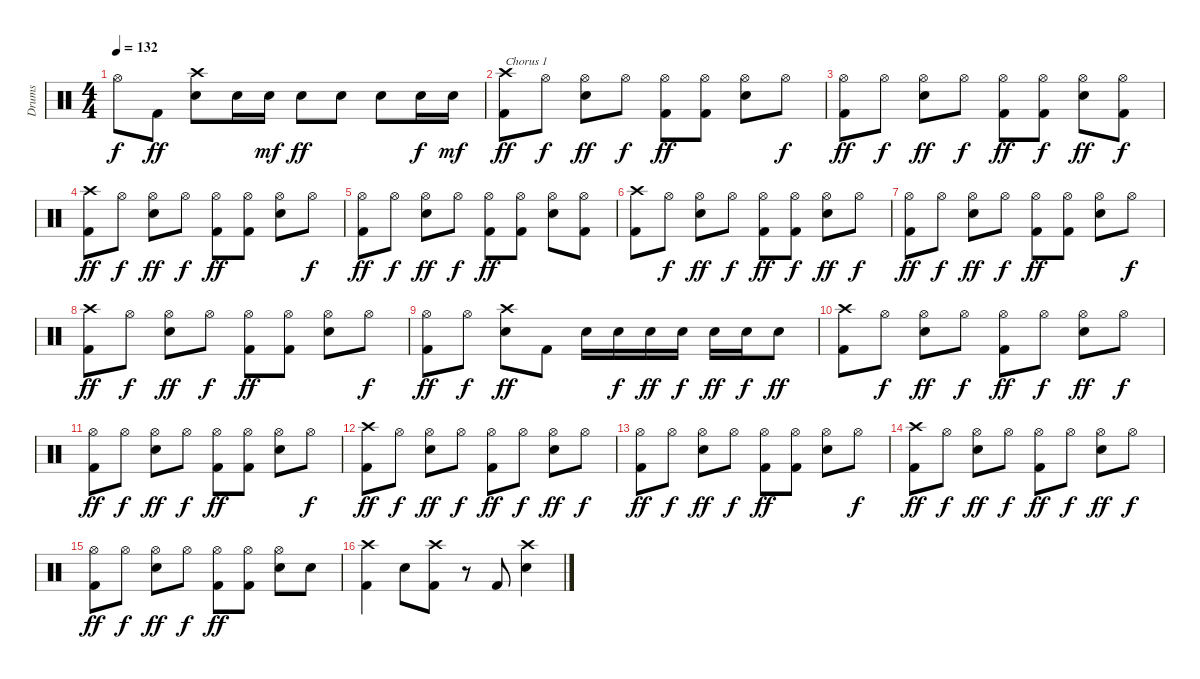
\track ("Drums" "Drums") {instrument percussion}
\staff {score}
\articulation defaults
\ts (4 4)
\tempo 132
\clef neutral
\ks c "Hi-Hat (open)".8{dy f} "Kick (hit) 2".8{dy ff}
("Crash high (hit)" "Snare (hit) 2").8 "Snare (hit) 2".16 "Snare (hit) 2".16{dy mf} "Snare (hit) 2".8{dy ff} "Snare (hit) 2".8 "Snare (hit) 2".8 "Snare (hit) 2".16{dy f} "Snare (hit) 2".16{dy mf} |
("Crash high (hit)" "Kick (hit) 2").8{txt "Chorus 1" dy ff} "Hi-Hat (open)".8{dy f} ("Hi-Hat (open)" "Snare (hit) 2").8{dy ff} "Hi-Hat (open)".8{dy f} ("Hi-Hat (open)" "Kick (hit) 2").8{dy ff} ("Hi-Hat (open)" "Kick (hit) 2").8 ("Hi-Hat (open)" "Snare (hit) 2").8 "Hi-Hat (open)".8{dy f} |
("Hi-Hat (open)" "Kick (hit) 2").8{dy ff} "Hi-Hat (open)".8{dy f} ("Hi-Hat (open)" "Snare (hit) 2").8{dy ff} "Hi-Hat (open)".8{dy f} ("Hi-Hat (open)" "Kick (hit) 2").8{dy ff} ("Hi-Hat (open)" "Kick (hit) 2").8{dy f} ("Hi-Hat (open)" "Snare (hit) 2").8{dy ff} ("Hi-Hat (open)" "Kick (hit) 2").8{dy f} |
("Crash high (hit)" "Kick (hit) 2").8{dy ff} "Hi-Hat (open)".8{dy f} ("Hi-Hat (open)" "Snare (hit) 2").8{dy ff} "Hi-Hat (open)".8{dy f} ("Hi-Hat (open)" "Kick (hit) 2").8{dy ff} ("Hi-Hat (open)" "Kick (hit) 2").8 ("Hi-Hat (open)" "Snare (hit) 2").8 "Hi-Hat (open)".8{dy f} |
("Hi-Hat (open)" "Kick (hit) 2").8{dy ff} "Hi-Hat (open)".8{dy f} ("Hi-Hat (open)" "Snare (hit) 2").8{dy ff} "Hi-Hat (open)".8{dy f} ("Hi-Hat (open)" "Kick (hit) 2").8{dy ff} ("Hi-Hat (open)" "Kick (hit) 2").8 ("Hi-Hat (open)" "Snare (hit) 2").8 ("Hi-Hat (open)" "Kick (hit) 2").8 |
("Crash high (hit)" "Kick (hit) 2").8 "Hi-Hat (open)".8{dy f} ("Hi-Hat (open)" "Snare (hit) 2").8{dy ff} "Hi-Hat (open)".8{dy f} ("Hi-Hat (open)" "Kick (hit) 2").8{dy ff} ("Hi-Hat (open)" "Kick (hit) 2").8{dy f} ("Hi-Hat (open)" "Snare (hit) 2").8{dy ff} "Hi-Hat (open)".8{dy f} |
("Hi-Hat (open)" "Kick (hit) 2").8{dy ff} "Hi-Hat (open)".8{dy f} ("Hi-Hat (open)" "Snare (hit) 2").8{dy ff} "Hi-Hat (open)".8{dy f} ("Hi-Hat (open)" "Kick (hit) 2").8{dy ff} ("Hi-Hat (open)" "Kick (hit) 2").8 ("Hi-Hat (open)" "Snare (hit) 2").8 "Hi-Hat (open)".8{dy f} |
("Crash high (hit)" "Kick (hit) 2").8{dy ff} "Hi-Hat (open)".8{dy f} ("Hi-Hat (open)" "Snare (hit) 2").8{dy ff} "Hi-Hat (open)".8{dy f} ("Hi-Hat (open)" "Kick (hit) 2").8{dy ff} ("Hi-Hat (open)" "Kick (hit) 2").8 ("Hi-Hat (open)" "Snare (hit) 2").8 "Hi-Hat (open)".8{dy f} |
("Hi-Hat (open)" "Kick (hit) 2").8{dy ff} "Hi-Hat (open)".8{dy f} ("Crash high (hit)" "Snare (hit) 2").8{dy ff} "Kick (hit) 2".8 "Snare (hit) 2".16 "Snare (hit) 2".16{dy f} "Snare (hit) 2".16{dy ff} "Snare (hit) 2".16{dy f} "Snare (hit) 2".16{dy ff} "Snare (hit) 2".16{dy f} "Snare (hit) 2".8{dy ff} |
("Crash high (hit)" "Kick (hit) 2").8 "Hi-Hat (open)".8{dy f} ("Hi-Hat (open)" "Snare (hit) 2").8{dy ff} "Hi-Hat (open)".8{dy f} ("Hi-Hat (open)" "Kick (hit) 2").8{dy ff} "Hi-Hat (open)".8{dy f} ("Hi-Hat (open)" "Snare (hit) 2").8{dy ff} "Hi-Hat (open)".8{dy f} |
("Hi-Hat (open)" "Kick (hit) 2").8{dy ff} "Hi-Hat (open)".8{dy f} ("Hi-Hat (open)" "Snare (hit) 2").8{dy ff} "Hi-Hat (open)".8{dy f} ("Hi-Hat (open)" "Kick (hit) 2").8{dy ff} ("Hi-Hat (open)" "Kick (hit) 2").8 ("Hi-Hat (open)" "Snare (hit) 2").8 "Hi-Hat (open)".8{dy f} |
("Crash high (hit)" "Kick (hit) 2").8{dy ff} "Hi-Hat (open)".8{dy f} ("Hi-Hat (open)" "Snare (hit) 2").8{dy ff} "Hi-Hat (open)".8{dy f} ("Hi-Hat (open)" "Kick (hit) 2").8{dy ff} "Hi-Hat (open)".8{dy f} ("Hi-Hat (open)" "Snare (hit) 2").8{dy ff} "Hi-Hat (open)".8{dy f} |
("Hi-Hat (open)" "Kick (hit) 2").8{dy ff} "Hi-Hat (open)".8{dy f} ("Hi-Hat (open)" "Snare (hit) 2").8{dy ff} "Hi-Hat (open)".8{dy f} ("Hi-Hat (open)" "Kick (hit) 2").8{dy ff} ("Hi-Hat (open)" "Kick (hit) 2").8 ("Hi-Hat (open)" "Snare (hit) 2").8 "Hi-Hat (open)".8{dy f} |
("Crash high (hit)" "Kick (hit) 2").8{dy ff} "Hi-Hat (open)".8{dy f} ("Hi-Hat (open)" "Snare (hit) 2").8{dy ff} "Hi-Hat (open)".8{dy f} ("Hi-Hat (open)" "Kick (hit) 2").8{dy ff} "Hi-Hat (open)".8{dy f} ("Hi-Hat (open)" "Snare (hit) 2").8{dy ff} "Hi-Hat (open)".8{dy f} |
("Hi-Hat (open)" "Kick (hit) 2").8{dy ff} "Hi-Hat (open)".8{dy f} ("Hi-Hat (open)" "Snare (hit) 2").8{dy ff} "Hi-Hat (open)".8{dy f} ("Hi-Hat (open)" "Kick (hit) 2").8{dy ff} ("Hi-Hat (open)" "Kick (hit) 2").8 ("Hi-Hat (open)" "Snare (hit) 2").8 "Snare (hit) 2".8 |
("Crash high (hit)" "Kick (hit) 2").4 "Snare (hit) 2".8 ("Crash high (hit)" "Kick (hit) 2").8 r.8 "Kick (hit) 2".8 ("Crash high (hit)" "Snare (hit) 2").4
